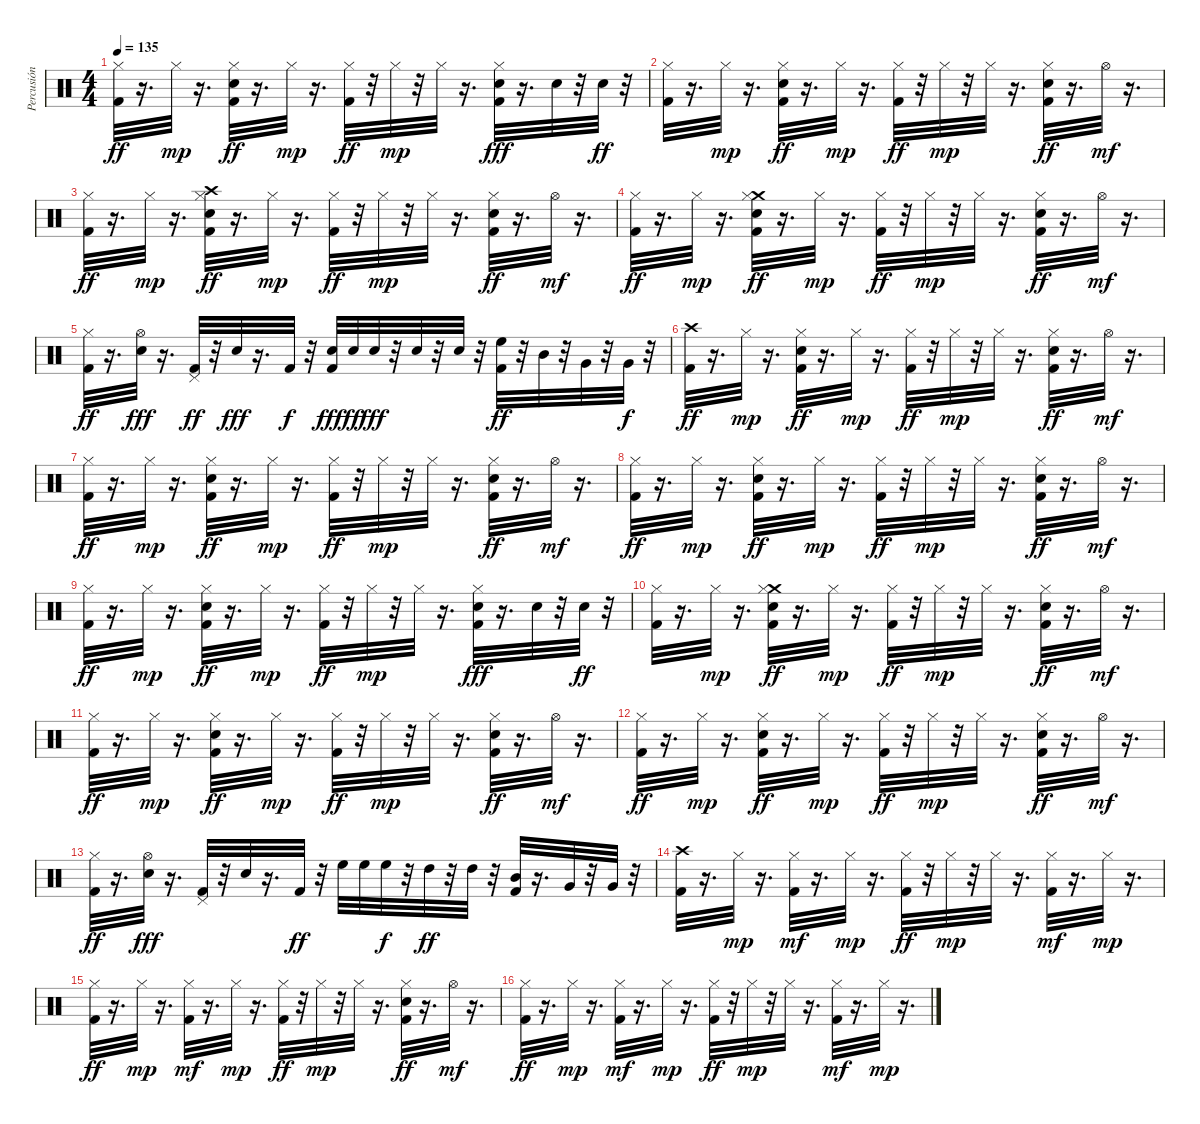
\track ("Percusión" "Percusión") {instrument percussion}
\staff {score}
\articulation defaults
\ts (4 4)
\tempo 135
\clef neutral
\ks c
("Hi-Hat (closed)" "Kick (hit) 2").32{dy ff} r.16{d} "Hi-Hat (closed)".32{dy mp} r.16{d} ("Hi-Hat (closed)" "Electric Snare (hit)" "Kick (hit) 2").32{dy ff} r.16{d} "Hi-Hat (closed)".32{dy mp} r.16{d} ("Hi-Hat (closed)" "Kick (hit) 2").32{dy ff} r.32 "Hi-Hat (closed)".32{dy mp} r.32 "Hi-Hat (closed)".32 r.16{d} ("Hi-Hat (closed)" "Electric Snare (hit)" "Kick (hit) 2").32{dy fff} r.16{d} "Electric Snare (hit)".32 r.32 "Electric Snare (hit)".32{dy ff} r.32 |
("Hi-Hat (closed)" "Kick (hit) 2").32 r.16{d} "Hi-Hat (closed)".32{dy mp} r.16{d} ("Hi-Hat (closed)" "Electric Snare (hit)" "Kick (hit) 2").32{dy ff} r.16{d} "Hi-Hat (closed)".32{dy mp} r.16{d} ("Hi-Hat (closed)" "Kick (hit) 2").32{dy ff} r.32 "Hi-Hat (closed)".32{dy mp} r.32 "Hi-Hat (closed)".32 r.16{d} ("Hi-Hat (closed)" "Electric Snare (hit)" "Kick (hit) 2").32{dy ff} r.16{d} "Hi-Hat (open)".32{dy mf} r.16{d} |
("Hi-Hat (closed)" "Kick (hit) 2").32{dy ff} r.16{d} "Hi-Hat (closed)".32{dy mp} r.16{d} ("Crash high (hit)" "Hi-Hat (closed)" "Electric Snare (hit)" "Kick (hit) 2").32{dy ff} r.16{d} "Hi-Hat (closed)".32{dy mp} r.16{d} ("Hi-Hat (closed)" "Kick (hit) 2").32{dy ff} r.32 "Hi-Hat (closed)".32{dy mp} r.32 "Hi-Hat (closed)".32 r.16{d} ("Hi-Hat (closed)" "Electric Snare (hit)" "Kick (hit) 2").32{dy ff} r.16{d} "Hi-Hat (open)".32{dy mf} r.16{d} |
("Hi-Hat (closed)" "Kick (hit) 2").32{dy ff} r.16{d} "Hi-Hat (closed)".32{dy mp} r.16{d} ("Crash medium (hit)" "Hi-Hat (closed)" "Electric Snare (hit)" "Kick (hit) 2").32{dy ff} r.16{d} "Hi-Hat (closed)".32{dy mp} r.16{d} ("Hi-Hat (closed)" "Kick (hit) 2").32{dy ff} r.32 "Hi-Hat (closed)".32{dy mp} r.32 "Hi-Hat (closed)".32 r.16{d} ("Hi-Hat (closed)" "Electric Snare (hit)" "Kick (hit) 2").32{dy ff} r.16{d} "Hi-Hat (open)".32{dy mf} r.16{d} |
("Hi-Hat (closed)" "Kick (hit) 2").32{dy ff} r.16{d} ("Hi-Hat (open)" "Electric Snare (hit)").32{dy fff} r.16{d} ("Pedal Hi-Hat (hit)" "Kick (hit) 2").32{dy ff} r.32 "Electric Snare (hit)".32{dy fff} r.16{d} "Kick (hit) 2".32{dy f} r.32 ("Electric Snare (hit)" "Kick (hit) 2").32{dy fff} "Electric Snare (hit)".32{dy ff} "Electric Snare (hit)".32{dy fff} r.32 "Electric Snare (hit)".32 r.32 "Electric Snare (hit)".32 r.32 ("High Floor Tom (hit)" "Kick (hit) 2").32{dy ff} r.32 "Mid Tom (hit)".32 r.32 "Very Low Tom (hit)".32 r.32 "Very Low Tom (hit)".32{dy f} r.32 |
("Crash high (hit)" "Kick (hit) 2").32{dy ff} r.16{d} "Hi-Hat (closed)".32{dy mp} r.16{d} ("Hi-Hat (closed)" "Electric Snare (hit)" "Kick (hit) 2").32{dy ff} r.16{d} "Hi-Hat (closed)".32{dy mp} r.16{d} ("Hi-Hat (closed)" "Kick (hit) 2").32{dy ff} r.32 "Hi-Hat (closed)".32{dy mp} r.32 "Hi-Hat (closed)".32 r.16{d} ("Hi-Hat (closed)" "Electric Snare (hit)" "Kick (hit) 2").32{dy ff} r.16{d} "Hi-Hat (open)".32{dy mf} r.16{d} |
("Hi-Hat (closed)" "Kick (hit) 2").32{dy ff} r.16{d} "Hi-Hat (closed)".32{dy mp} r.16{d} ("Hi-Hat (closed)" "Electric Snare (hit)" "Kick (hit) 2").32{dy ff} r.16{d} "Hi-Hat (closed)".32{dy mp} r.16{d} ("Hi-Hat (closed)" "Kick (hit) 2").32{dy ff} r.32 "Hi-Hat (closed)".32{dy mp} r.32 "Hi-Hat (closed)".32 r.16{d} ("Hi-Hat (closed)" "Electric Snare (hit)" "Kick (hit) 2").32{dy ff} r.16{d} "Hi-Hat (open)".32{dy mf} r.16{d} |
("Hi-Hat (closed)" "Kick (hit) 2").32{dy ff} r.16{d} "Hi-Hat (closed)".32{dy mp} r.16{d} ("Hi-Hat (closed)" "Electric Snare (hit)" "Kick (hit) 2").32{dy ff} r.16{d} "Hi-Hat (closed)".32{dy mp} r.16{d} ("Hi-Hat (closed)" "Kick (hit) 2").32{dy ff} r.32 "Hi-Hat (closed)".32{dy mp} r.32 "Hi-Hat (closed)".32 r.16{d} ("Hi-Hat (closed)" "Electric Snare (hit)" "Kick (hit) 2").32{dy ff} r.16{d} "Hi-Hat (open)".32{dy mf} r.16{d} |
("Hi-Hat (closed)" "Kick (hit) 2").32{dy ff} r.16{d} "Hi-Hat (closed)".32{dy mp} r.16{d} ("Hi-Hat (closed)" "Electric Snare (hit)" "Kick (hit) 2").32{dy ff} r.16{d} "Hi-Hat (closed)".32{dy mp} r.16{d} ("Hi-Hat (closed)" "Kick (hit) 2").32{dy ff} r.32 "Hi-Hat (closed)".32{dy mp} r.32 "Hi-Hat (closed)".32 r.16{d} ("Hi-Hat (closed)" "Electric Snare (hit)" "Kick (hit) 2").32{dy fff} r.16{d} "Electric Snare (hit)".32 r.32 "Electric Snare (hit)".32{dy ff} r.32 |
("Hi-Hat (closed)" "Kick (hit) 2").32 r.16{d} "Hi-Hat (closed)".32{dy mp} r.16{d} ("Crash medium (hit)" "Hi-Hat (closed)" "Electric Snare (hit)" "Kick (hit) 2").32{dy ff} r.16{d} "Hi-Hat (closed)".32{dy mp} r.16{d} ("Hi-Hat (closed)" "Kick (hit) 2").32{dy ff} r.32 "Hi-Hat (closed)".32{dy mp} r.32 "Hi-Hat (closed)".32 r.16{d} ("Hi-Hat (closed)" "Electric Snare (hit)" "Kick (hit) 2").32{dy ff} r.16{d} "Hi-Hat (open)".32{dy mf} r.16{d} |
("Hi-Hat (closed)" "Kick (hit) 2").32{dy ff} r.16{d} "Hi-Hat (closed)".32{dy mp} r.16{d} ("Hi-Hat (closed)" "Electric Snare (hit)" "Kick (hit) 2").32{dy ff} r.16{d} "Hi-Hat (closed)".32{dy mp} r.16{d} ("Hi-Hat (closed)" "Kick (hit) 2").32{dy ff} r.32 "Hi-Hat (closed)".32{dy mp} r.32 "Hi-Hat (closed)".32 r.16{d} ("Hi-Hat (closed)" "Electric Snare (hit)" "Kick (hit) 2").32{dy ff} r.16{d} "Hi-Hat (open)".32{dy mf} r.16{d} |
("Hi-Hat (closed)" "Kick (hit) 2").32{dy ff} r.16{d} "Hi-Hat (closed)".32{dy mp} r.16{d} ("Hi-Hat (closed)" "Electric Snare (hit)" "Kick (hit) 2").32{dy ff} r.16{d} "Hi-Hat (closed)".32{dy mp} r.16{d} ("Hi-Hat (closed)" "Kick (hit) 2").32{dy ff} r.32 "Hi-Hat (closed)".32{dy mp} r.32 "Hi-Hat (closed)".32 r.16{d} ("Hi-Hat (closed)" "Electric Snare (hit)" "Kick (hit) 2").32{dy ff} r.16{d} "Hi-Hat (open)".32{dy mf} r.16{d} |
("Hi-Hat (closed)" "Kick (hit) 2").32{dy ff} r.16{d} ("Hi-Hat (open)" "Electric Snare (hit)").32{dy fff} r.16{d} ("Pedal Hi-Hat (hit)" "Kick (hit) 2").32 r.32 "Electric Snare (hit)".32 r.16{d} "Kick (hit) 2".32{dy ff} r.32 "High Floor Tom (hit)".32 "High Floor Tom (hit)".32 "High Floor Tom (hit)".32{dy f} r.32 "High Tom (hit)".32{dy ff} r.32 "High Tom (hit)".32 r.32 ("Mid Tom (hit)" "Kick (hit) 2").32 r.16{d} "Very Low Tom (hit)".32 r.32 "Very Low Tom (hit)".32 r.32 |
("Crash high (hit)" "Kick (hit) 2").32 r.16{d} "Hi-Hat (closed)".32{dy mp} r.16{d} ("Hi-Hat (closed)" "Kick (hit) 2").32{dy mf} r.16{d} "Hi-Hat (closed)".32{dy mp} r.16{d} ("Hi-Hat (closed)" "Kick (hit) 2").32{dy ff} r.32 "Hi-Hat (closed)".32{dy mp} r.32 "Hi-Hat (closed)".32 r.16{d} ("Hi-Hat (closed)" "Kick (hit) 2").32{dy mf} r.16{d} "Hi-Hat (closed)".32{dy mp} r.16{d} |
("Hi-Hat (closed)" "Kick (hit) 2").32{dy ff} r.16{d} "Hi-Hat (closed)".32{dy mp} r.16{d} ("Hi-Hat (closed)" "Kick (hit) 2").32{dy mf} r.16{d} "Hi-Hat (closed)".32{dy mp} r.16{d} ("Hi-Hat (closed)" "Kick (hit) 2").32{dy ff} r.32 "Hi-Hat (closed)".32{dy mp} r.32 "Hi-Hat (closed)".32 r.16{d} ("Hi-Hat (closed)" "Electric Snare (hit)" "Kick (hit) 2").32{dy ff} r.16{d} "Hi-Hat (open)".32{dy mf} r.16{d} |
("Hi-Hat (closed)" "Kick (hit) 2").32{dy ff} r.16{d} "Hi-Hat (closed)".32{dy mp} r.16{d} ("Hi-Hat (closed)" "Kick (hit) 2").32{dy mf} r.16{d} "Hi-Hat (closed)".32{dy mp} r.16{d} ("Hi-Hat (closed)" "Kick (hit) 2").32{dy ff} r.32 "Hi-Hat (closed)".32{dy mp} r.32 "Hi-Hat (closed)".32 r.16{d} ("Hi-Hat (closed)" "Kick (hit) 2").32{dy mf} r.16{d} "Hi-Hat (closed)".32{dy mp} r.16{d}
